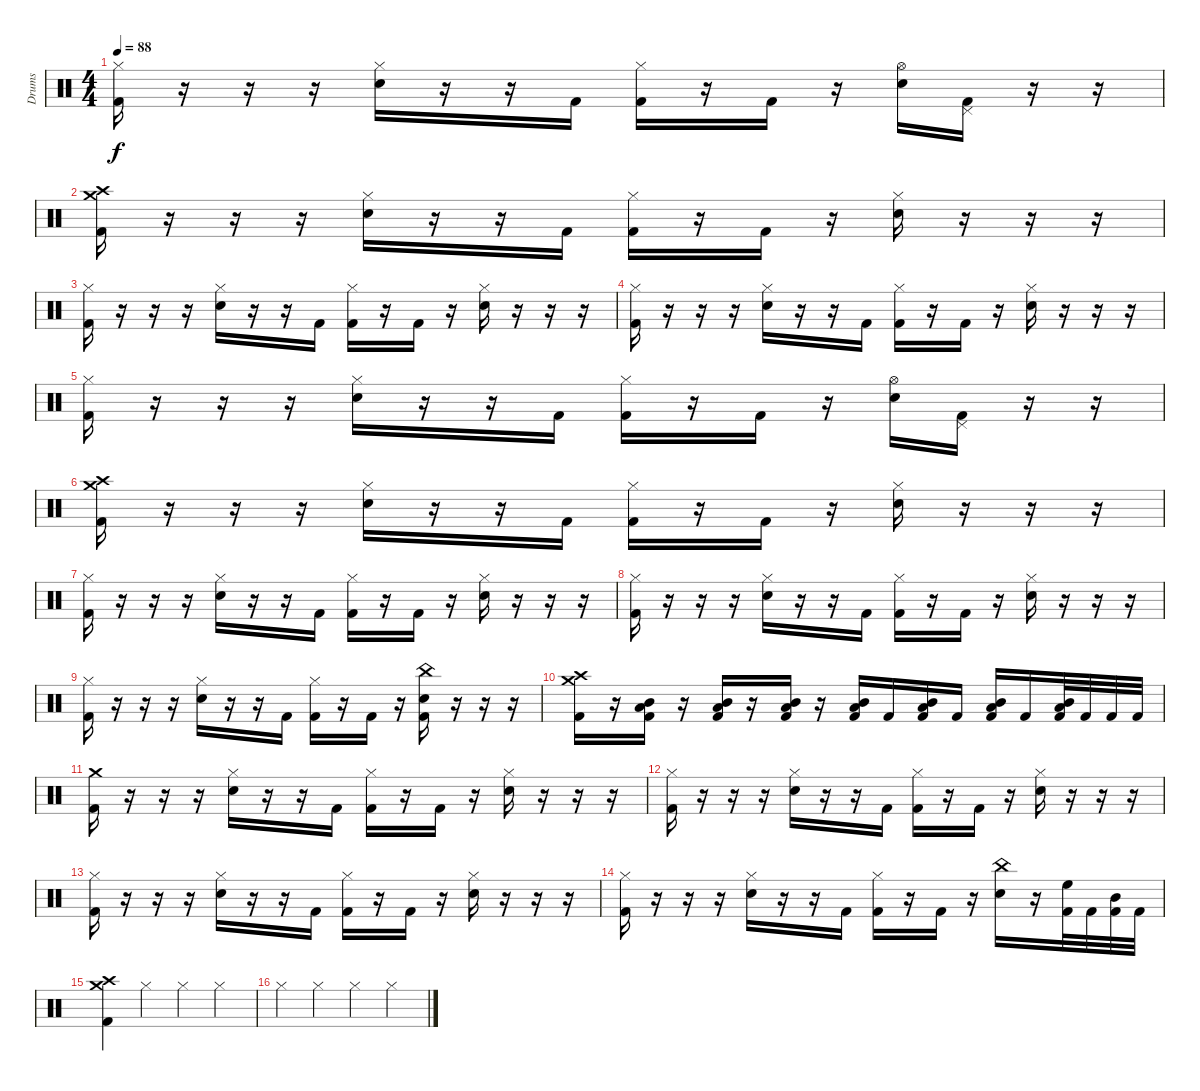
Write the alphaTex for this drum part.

\track ("Drums" "Drums") {instrument percussion}
\staff {score}
\articulation defaults
\ts (4 4)
\tempo 88
\clef neutral
\ks c
("Hi-Hat (closed)" "Kick (hit) 2").16{dy f} r.16 r.16 r.16 ("Hi-Hat (closed)" "Electric Snare (hit)").16 r.16 r.16 "Kick (hit) 2".16 ("Hi-Hat (closed)" "Kick (hit) 2").16 r.16 "Kick (hit) 2".16 r.16 ("Hi-Hat (open)" "Snare (hit) 2").16 ("Pedal Hi-Hat (hit)" "Kick (hit) 2").16 r.16 r.16 |
("Crash high (hit)" "Crash medium (hit)" "Kick (hit) 2").16 r.16 r.16 r.16 ("Hi-Hat (closed)" "Electric Snare (hit)").16 r.16 r.16 "Kick (hit) 2".16 ("Hi-Hat (closed)" "Kick (hit) 2").16 r.16 "Kick (hit) 2".16 r.16 ("Hi-Hat (closed)" "Electric Snare (hit)").16 r.16 r.16 r.16 |
("Hi-Hat (closed)" "Kick (hit) 2").16 r.16 r.16 r.16 ("Hi-Hat (closed)" "Electric Snare (hit)").16 r.16 r.16 "Kick (hit) 2".16 ("Hi-Hat (closed)" "Kick (hit) 2").16 r.16 "Kick (hit) 2".16 r.16 ("Hi-Hat (closed)" "Electric Snare (hit)").16 r.16 r.16 r.16 |
("Hi-Hat (closed)" "Kick (hit) 2").16 r.16 r.16 r.16 ("Hi-Hat (closed)" "Electric Snare (hit)").16 r.16 r.16 "Kick (hit) 2".16 ("Hi-Hat (closed)" "Kick (hit) 2").16 r.16 "Kick (hit) 2".16 r.16 ("Hi-Hat (closed)" "Electric Snare (hit)").16 r.16 r.16 r.16 |
("Hi-Hat (closed)" "Kick (hit) 2").16 r.16 r.16 r.16 ("Hi-Hat (closed)" "Electric Snare (hit)").16 r.16 r.16 "Kick (hit) 2".16 ("Hi-Hat (closed)" "Kick (hit) 2").16 r.16 "Kick (hit) 2".16 r.16 ("Hi-Hat (open)" "Snare (hit) 2").16 ("Pedal Hi-Hat (hit)" "Kick (hit) 2").16 r.16 r.16 |
("Crash high (hit)" "Crash medium (hit)" "Kick (hit) 2").16 r.16 r.16 r.16 ("Hi-Hat (closed)" "Electric Snare (hit)").16 r.16 r.16 "Kick (hit) 2".16 ("Hi-Hat (closed)" "Kick (hit) 2").16 r.16 "Kick (hit) 2".16 r.16 ("Hi-Hat (closed)" "Electric Snare (hit)").16 r.16 r.16 r.16 |
("Hi-Hat (closed)" "Kick (hit) 2").16 r.16 r.16 r.16 ("Hi-Hat (closed)" "Electric Snare (hit)").16 r.16 r.16 "Kick (hit) 2".16 ("Hi-Hat (closed)" "Kick (hit) 2").16 r.16 "Kick (hit) 2".16 r.16 ("Hi-Hat (closed)" "Electric Snare (hit)").16 r.16 r.16 r.16 |
("Hi-Hat (closed)" "Kick (hit) 2").16 r.16 r.16 r.16 ("Hi-Hat (closed)" "Electric Snare (hit)").16 r.16 r.16 "Kick (hit) 2".16 ("Hi-Hat (closed)" "Kick (hit) 2").16 r.16 "Kick (hit) 2".16 r.16 ("Hi-Hat (closed)" "Electric Snare (hit)").16 r.16 r.16 r.16 |
("Hi-Hat (closed)" "Kick (hit) 2").16 r.16 r.16 r.16 ("Hi-Hat (closed)" "Electric Snare (hit)").16 r.16 r.16 "Kick (hit) 2".16 ("Hi-Hat (closed)" "Kick (hit) 2").16 r.16 "Kick (hit) 2".16 r.16 ("China (hit)" "Snare (hit) 2" "Kick (hit) 2").16 r.16 r.16 r.16 |
("Crash high (hit)" "Crash medium (hit)" "Kick (hit) 2").16 r.16 ("Mid Tom (hit)" "Low Floor Tom (hit)" "Kick (hit) 2").16 r.16 ("Mid Tom (hit)" "Low Floor Tom (hit)" "Kick (hit) 2").16 r.16 ("Mid Tom (hit)" "Low Floor Tom (hit)" "Kick (hit) 2").16 r.16 ("Mid Tom (hit)" "Low Floor Tom (hit)" "Kick (hit) 2").16 "Kick (hit) 2".16 ("Mid Tom (hit)" "Low Floor Tom (hit)" "Kick (hit) 2").16 "Kick (hit) 2".16 ("Mid Tom (hit)" "Low Floor Tom (hit)" "Kick (hit) 2").16 "Kick (hit) 2".16 ("Mid Tom (hit)" "Low Floor Tom (hit)" "Kick (hit) 2").32 "Kick (hit) 2".32 "Kick (hit) 2".32 "Kick (hit) 2".32 |
("Crash medium (hit)" "Kick (hit) 2").16 r.16 r.16 r.16 ("Hi-Hat (closed)" "Electric Snare (hit)").16 r.16 r.16 "Kick (hit) 2".16 ("Hi-Hat (closed)" "Kick (hit) 2").16 r.16 "Kick (hit) 2".16 r.16 ("Hi-Hat (closed)" "Electric Snare (hit)").16 r.16 r.16 r.16 |
("Hi-Hat (closed)" "Kick (hit) 2").16 r.16 r.16 r.16 ("Hi-Hat (closed)" "Electric Snare (hit)").16 r.16 r.16 "Kick (hit) 2".16 ("Hi-Hat (closed)" "Kick (hit) 2").16 r.16 "Kick (hit) 2".16 r.16 ("Hi-Hat (closed)" "Electric Snare (hit)").16 r.16 r.16 r.16 |
("Hi-Hat (closed)" "Kick (hit) 2").16 r.16 r.16 r.16 ("Hi-Hat (closed)" "Electric Snare (hit)").16 r.16 r.16 "Kick (hit) 2".16 ("Hi-Hat (closed)" "Kick (hit) 2").16 r.16 "Kick (hit) 2".16 r.16 ("Hi-Hat (closed)" "Electric Snare (hit)").16 r.16 r.16 r.16 |
("Hi-Hat (closed)" "Kick (hit) 2").16 r.16 r.16 r.16 ("Hi-Hat (closed)" "Electric Snare (hit)").16 r.16 r.16 "Kick (hit) 2".16 ("Hi-Hat (closed)" "Kick (hit) 2").16 r.16 "Kick (hit) 2".16 r.16 ("China (hit)" "Electric Snare (hit)").16 r.16 ("High Floor Tom (hit)" "Kick (hit) 2").32 "Kick (hit) 2".32 ("Mid Tom (hit)" "Kick (hit) 2").32 "Kick (hit) 2".32 |
("Crash high (hit)" "Crash medium (hit)" "Kick (hit) 2").4 "Hi-Hat (closed)".4 "Hi-Hat (closed)".4 "Hi-Hat (closed)".4 |
"Hi-Hat (closed)".4 "Hi-Hat (closed)".4 "Hi-Hat (closed)".4 "Hi-Hat (closed)".4
